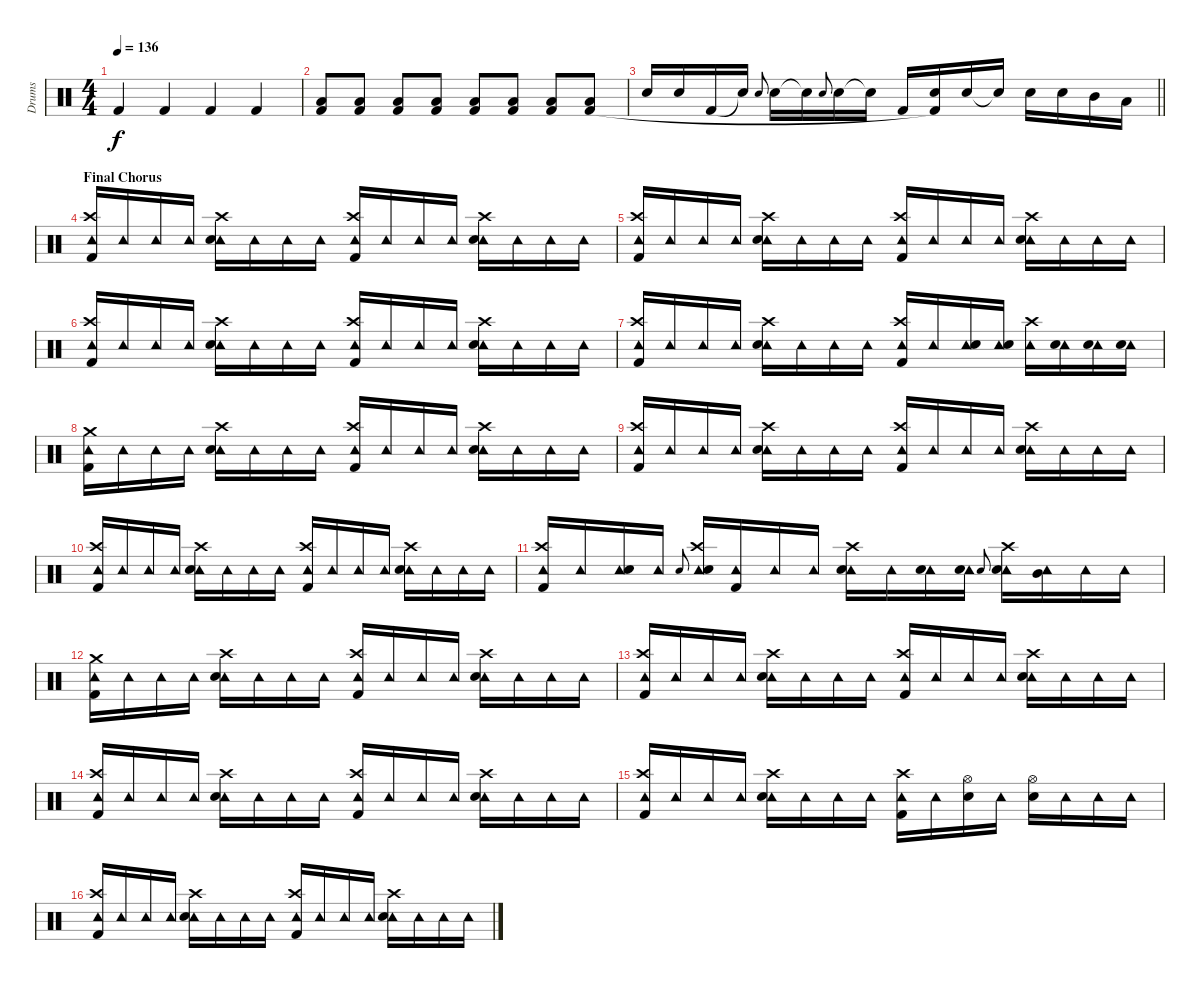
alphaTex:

\track ("Drums" "Drums") {instrument percussion}
\staff {score}
\articulation defaults
\ts (4 4)
\tempo 136
\clef neutral
\ks c "Kick (hit) 2".4{dy f} "Kick (hit) 2".4 "Kick (hit) 2".4 "Kick (hit) 2".4
|
("Low Floor Tom (hit)" "Kick (hit) 2").8{volume 7} ("Low Floor Tom (hit)" "Kick (hit) 2").8{volume 12} ("Low Floor Tom (hit)" "Kick (hit) 2").8 ("Low Floor Tom (hit)" "Kick (hit) 2").8 ("Low Floor Tom (hit)" "Kick (hit) 2").8 ("Low Floor Tom (hit)" "Kick (hit) 2").8 ("Low Floor Tom (hit)" "Kick (hit) 2").8 ("Low Floor Tom (hit)" "Kick (hit) 2").8 |
\barLineRight lightlight "Electric Snare (hit)".16 "Electric Snare (hit)".16 "Kick (hit) 2".16 "Snare (hit)"{t}.16 "Electric Snare (hit)".8{gr onbeat} "Electric Snare (hit)".16 "Snare (hit)"{t}.16 "Electric Snare (hit)".8{gr onbeat} "Electric Snare (hit)".16 "Snare (hit)"{t}.16 "Kick (hit) 2".16
("Electric Snare (hit)" "Kick (hit) 2"{t}).16 "Electric Snare (hit)".16 "Snare (hit)"{t}.16 "Electric Snare (hit)".16 "Electric Snare (hit)".16 "Mid Tom (hit)".16 "Low Tom (hit)".16 |
\section ("" "Final Chorus")
("Crash high (hit)" "Tambourine (hit)" "Kick (hit) 2").16 "Tambourine (hit)".16 "Tambourine (hit)".16 "Tambourine (hit)".16 ("Crash high (hit)" "Tambourine (hit)" "Electric Snare (hit)").16 "Tambourine (hit)".16 "Tambourine (hit)".16 "Tambourine (hit)".16 ("Crash high (hit)" "Tambourine (hit)" "Kick (hit) 2").16 "Tambourine (hit)".16 "Tambourine (hit)".16 "Tambourine (hit)".16 ("Crash high (hit)" "Tambourine (hit)" "Electric Snare (hit)").16 "Tambourine (hit)".16 "Tambourine (hit)".16 "Tambourine (hit)".16 |
("Crash high (hit)" "Tambourine (hit)" "Kick (hit) 2").16 "Tambourine (hit)".16 "Tambourine (hit)".16 "Tambourine (hit)".16 ("Crash high (hit)" "Tambourine (hit)" "Electric Snare (hit)").16 "Tambourine (hit)".16 "Tambourine (hit)".16 "Tambourine (hit)".16 ("Crash high (hit)" "Tambourine (hit)" "Kick (hit) 2").16 "Tambourine (hit)".16 "Tambourine (hit)".16 "Tambourine (hit)".16 ("Crash high (hit)" "Tambourine (hit)" "Electric Snare (hit)").16 "Tambourine (hit)".16 "Tambourine (hit)".16 "Tambourine (hit)".16 |
("Crash high (hit)" "Tambourine (hit)" "Kick (hit) 2").16 "Tambourine (hit)".16 "Tambourine (hit)".16 "Tambourine (hit)".16 ("Crash high (hit)" "Tambourine (hit)" "Electric Snare (hit)").16 "Tambourine (hit)".16 "Tambourine (hit)".16 "Tambourine (hit)".16 ("Crash high (hit)" "Tambourine (hit)" "Kick (hit) 2").16 "Tambourine (hit)".16 "Tambourine (hit)".16 "Tambourine (hit)".16 ("Crash high (hit)" "Tambourine (hit)" "Electric Snare (hit)").16 "Tambourine (hit)".16 "Tambourine (hit)".16 "Tambourine (hit)".16 |
("Crash high (hit)" "Tambourine (hit)" "Kick (hit) 2").16 "Tambourine (hit)".16 "Tambourine (hit)".16 "Tambourine (hit)".16 ("Crash high (hit)" "Tambourine (hit)" "Electric Snare (hit)").16 "Tambourine (hit)".16 "Tambourine (hit)".16 "Tambourine (hit)".16 ("Crash high (hit)" "Tambourine (hit)" "Kick (hit) 2").16 "Tambourine (hit)".16 ("Tambourine (hit)" "Electric Snare (hit)").16 ("Tambourine (hit)" "Electric Snare (hit)").16 ("Crash high (hit)" "Tambourine (hit)").16 ("Tambourine (hit)" "Electric Snare (hit)").16 ("Tambourine (hit)" "Electric Snare (hit)").16 ("Tambourine (hit)" "Electric Snare (hit)").16 |
("Crash medium (hit)" "Tambourine (hit)" "Kick (hit) 2").16 "Tambourine (hit)".16 "Tambourine (hit)".16 "Tambourine (hit)".16 ("Crash high (hit)" "Tambourine (hit)" "Electric Snare (hit)").16 "Tambourine (hit)".16 "Tambourine (hit)".16 "Tambourine (hit)".16 ("Crash high (hit)" "Tambourine (hit)" "Kick (hit) 2").16 "Tambourine (hit)".16 "Tambourine (hit)".16 "Tambourine (hit)".16 ("Crash high (hit)" "Tambourine (hit)" "Electric Snare (hit)").16 "Tambourine (hit)".16 "Tambourine (hit)".16 "Tambourine (hit)".16 |
("Crash high (hit)" "Tambourine (hit)" "Kick (hit) 2").16 "Tambourine (hit)".16 "Tambourine (hit)".16 "Tambourine (hit)".16 ("Crash high (hit)" "Tambourine (hit)" "Electric Snare (hit)").16 "Tambourine (hit)".16 "Tambourine (hit)".16 "Tambourine (hit)".16 ("Crash high (hit)" "Tambourine (hit)" "Kick (hit) 2").16 "Tambourine (hit)".16 "Tambourine (hit)".16 "Tambourine (hit)".16 ("Crash high (hit)" "Tambourine (hit)" "Electric Snare (hit)").16 "Tambourine (hit)".16 "Tambourine (hit)".16 "Tambourine (hit)".16 |
("Crash high (hit)" "Tambourine (hit)" "Kick (hit) 2").16 "Tambourine (hit)".16 "Tambourine (hit)".16 "Tambourine (hit)".16 ("Crash high (hit)" "Tambourine (hit)" "Electric Snare (hit)").16 "Tambourine (hit)".16 "Tambourine (hit)".16 "Tambourine (hit)".16 ("Crash high (hit)" "Tambourine (hit)" "Kick (hit) 2").16 "Tambourine (hit)".16 "Tambourine (hit)".16 "Tambourine (hit)".16 ("Crash high (hit)" "Tambourine (hit)" "Electric Snare (hit)").16 "Tambourine (hit)".16 "Tambourine (hit)".16 "Tambourine (hit)".16 |
("Crash high (hit)" "Tambourine (hit)" "Kick (hit) 2").16 "Tambourine (hit)".16 ("Tambourine (hit)" "Electric Snare (hit)").16 "Tambourine (hit)".16 "Electric Snare (hit)".8{gr onbeat} ("Crash high (hit)" "Tambourine (hit)" "Electric Snare (hit)").16 ("Tambourine (hit)" "Kick (hit) 2").16 "Tambourine (hit)".16 "Tambourine (hit)".16 ("Crash high (hit)" "Tambourine (hit)" "Electric Snare (hit)").16 "Tambourine (hit)".16 ("Tambourine (hit)" "Electric Snare (hit)").16 ("Tambourine (hit)" "Electric Snare (hit)").16 "Electric Snare (hit)".8{gr onbeat} ("Crash high (hit)" "Tambourine (hit)" "Electric Snare (hit)").16 ("Tambourine (hit)" "Mid Tom (hit)").16 "Tambourine (hit)".16 "Tambourine (hit)".16 |
("Crash medium (hit)" "Tambourine (hit)" "Kick (hit) 2").16 "Tambourine (hit)".16 "Tambourine (hit)".16 "Tambourine (hit)".16 ("Crash high (hit)" "Tambourine (hit)" "Electric Snare (hit)").16 "Tambourine (hit)".16 "Tambourine (hit)".16 "Tambourine (hit)".16 ("Crash high (hit)" "Tambourine (hit)" "Kick (hit) 2").16 "Tambourine (hit)".16 "Tambourine (hit)".16 "Tambourine (hit)".16 ("Crash high (hit)" "Tambourine (hit)" "Electric Snare (hit)").16 "Tambourine (hit)".16 "Tambourine (hit)".16 "Tambourine (hit)".16 |
("Crash high (hit)" "Tambourine (hit)" "Kick (hit) 2").16 "Tambourine (hit)".16 "Tambourine (hit)".16 "Tambourine (hit)".16 ("Crash high (hit)" "Tambourine (hit)" "Electric Snare (hit)").16 "Tambourine (hit)".16 "Tambourine (hit)".16 "Tambourine (hit)".16 ("Crash high (hit)" "Tambourine (hit)" "Kick (hit) 2").16 "Tambourine (hit)".16 "Tambourine (hit)".16 "Tambourine (hit)".16 ("Crash high (hit)" "Tambourine (hit)" "Electric Snare (hit)").16 "Tambourine (hit)".16 "Tambourine (hit)".16 "Tambourine (hit)".16 |
("Crash high (hit)" "Tambourine (hit)" "Kick (hit) 2").16 "Tambourine (hit)".16 "Tambourine (hit)".16 "Tambourine (hit)".16 ("Crash high (hit)" "Tambourine (hit)" "Electric Snare (hit)").16 "Tambourine (hit)".16 "Tambourine (hit)".16 "Tambourine (hit)".16 ("Crash high (hit)" "Tambourine (hit)" "Kick (hit) 2").16 "Tambourine (hit)".16 "Tambourine (hit)".16 "Tambourine (hit)".16 ("Crash high (hit)" "Tambourine (hit)" "Electric Snare (hit)").16 "Tambourine (hit)".16 "Tambourine (hit)".16 "Tambourine (hit)".16 |
("Crash high (hit)" "Tambourine (hit)" "Kick (hit) 2").16 "Tambourine (hit)".16 "Tambourine (hit)".16 "Tambourine (hit)".16 ("Crash high (hit)" "Tambourine (hit)" "Electric Snare (hit)").16 "Tambourine (hit)".16 "Tambourine (hit)".16 "Tambourine (hit)".16 ("Crash high (hit)" "Tambourine (hit)" "Kick (hit) 2").16 "Tambourine (hit)".16 ("Hi-Hat (open)" "Electric Snare (hit)").16 "Tambourine (hit)".16 ("Hi-Hat (open)" "Electric Snare (hit)").16 "Tambourine (hit)".16 "Tambourine (hit)".16 "Tambourine (hit)".16 |
("Crash high (hit)" "Tambourine (hit)" "Kick (hit) 2").16 "Tambourine (hit)".16 "Tambourine (hit)".16 "Tambourine (hit)".16 ("Crash high (hit)" "Tambourine (hit)" "Electric Snare (hit)").16 "Tambourine (hit)".16 "Tambourine (hit)".16 "Tambourine (hit)".16 ("Crash high (hit)" "Tambourine (hit)" "Kick (hit) 2").16 "Tambourine (hit)".16 "Tambourine (hit)".16 "Tambourine (hit)".16 ("Crash high (hit)" "Tambourine (hit)" "Electric Snare (hit)").16 "Tambourine (hit)".16 "Tambourine (hit)".16 "Tambourine (hit)".16
